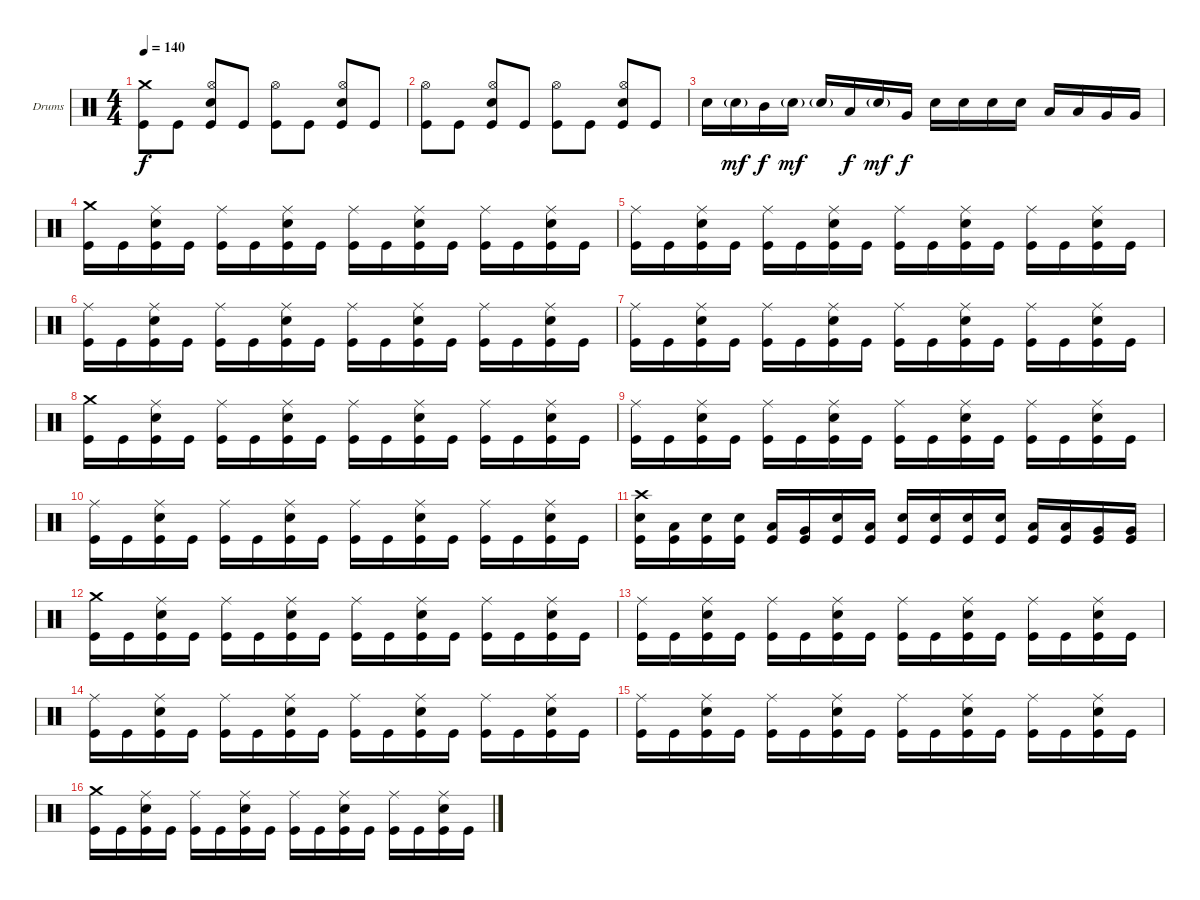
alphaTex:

\bracketExtendMode groupsimilarinstruments
\firstSystemTrackNameOrientation horizontal
\otherSystemsTrackNameOrientation horizontal
\track ("Дмитрий Кривенков" "Drums") {instrument percussion}
\staff {score}
\articulation defaults
\ts (4 4)
\tempo 140
\clef neutral
\ks c
("Crash medium (hit)" "Kick (hit)").8{dy f} "Kick (hit)".8 ("Hi-Hat (open)" "Snare (hit) 2" "Kick (hit)").8 "Kick (hit)".8 ("Hi-Hat (open)" "Kick (hit)").8 "Kick (hit)".8 ("Hi-Hat (open)" "Snare (hit) 2" "Kick (hit)").8 "Kick (hit)".8 |
("Hi-Hat (open)" "Kick (hit)").8 "Kick (hit)".8 ("Hi-Hat (open)" "Snare (hit) 2" "Kick (hit)").8 "Kick (hit)".8 ("Hi-Hat (open)" "Kick (hit)").8 "Kick (hit)".8 ("Hi-Hat (open)" "Snare (hit) 2" "Kick (hit)").8 "Kick (hit)".8 |
"Snare (hit) 2".16 "Snare (hit) 2"{g}.16{dy mf} "Mid Tom (hit)".16{dy f} "Snare (hit) 2"{g}.16{dy mf} "Snare (hit) 2"{g}.16 "Low Tom (hit)".16{dy f} "Snare (hit) 2"{g}.16{dy mf} "Very Low Tom (hit)".16{dy f} "Snare (hit) 2".16 "Snare (hit) 2".16 "Snare (hit) 2".16 "Snare (hit) 2".16 "Low Tom (hit)".16 "Low Tom (hit)".16 "Very Low Tom (hit)".16 "Very Low Tom (hit)".16 |
("Crash medium (hit)" "Kick (hit)").16 "Kick (hit)".16 ("Ride (middle)" "Snare (hit) 2" "Kick (hit)").16 "Kick (hit)".16 ("Ride (middle)" "Kick (hit)").16 "Kick (hit)".16 ("Ride (middle)" "Snare (hit) 2" "Kick (hit)").16 "Kick (hit)".16 ("Ride (middle)" "Kick (hit)").16 "Kick (hit)".16 ("Ride (middle)" "Snare (hit) 2" "Kick (hit)").16 "Kick (hit)".16 ("Ride (middle)" "Kick (hit)").16 "Kick (hit)".16 ("Ride (middle)" "Snare (hit) 2" "Kick (hit)").16 "Kick (hit)".16 |
("Ride (middle)" "Kick (hit)").16 "Kick (hit)".16 ("Ride (middle)" "Snare (hit) 2" "Kick (hit)").16 "Kick (hit)".16 ("Ride (middle)" "Kick (hit)").16 "Kick (hit)".16 ("Ride (middle)" "Snare (hit) 2" "Kick (hit)").16 "Kick (hit)".16 ("Ride (middle)" "Kick (hit)").16 "Kick (hit)".16 ("Ride (middle)" "Snare (hit) 2" "Kick (hit)").16 "Kick (hit)".16 ("Ride (middle)" "Kick (hit)").16 "Kick (hit)".16 ("Ride (middle)" "Snare (hit) 2" "Kick (hit)").16 "Kick (hit)".16 |
("Ride (middle)" "Kick (hit)").16 "Kick (hit)".16 ("Ride (middle)" "Snare (hit) 2" "Kick (hit)").16 "Kick (hit)".16 ("Ride (middle)" "Kick (hit)").16 "Kick (hit)".16 ("Ride (middle)" "Snare (hit) 2" "Kick (hit)").16 "Kick (hit)".16 ("Ride (middle)" "Kick (hit)").16 "Kick (hit)".16 ("Ride (middle)" "Snare (hit) 2" "Kick (hit)").16 "Kick (hit)".16 ("Ride (middle)" "Kick (hit)").16 "Kick (hit)".16 ("Ride (middle)" "Snare (hit) 2" "Kick (hit)").16 "Kick (hit)".16 |
("Ride (middle)" "Kick (hit)").16 "Kick (hit)".16 ("Ride (middle)" "Snare (hit) 2" "Kick (hit)").16 "Kick (hit)".16 ("Ride (middle)" "Kick (hit)").16 "Kick (hit)".16 ("Ride (middle)" "Snare (hit) 2" "Kick (hit)").16 "Kick (hit)".16 ("Ride (middle)" "Kick (hit)").16 "Kick (hit)".16 ("Ride (middle)" "Snare (hit) 2" "Kick (hit)").16 "Kick (hit)".16 ("Ride (middle)" "Kick (hit)").16 "Kick (hit)".16 ("Ride (middle)" "Snare (hit) 2" "Kick (hit)").16 "Kick (hit)".16 |
("Crash medium (hit)" "Kick (hit)").16 "Kick (hit)".16 ("Ride (middle)" "Snare (hit) 2" "Kick (hit)").16 "Kick (hit)".16 ("Ride (middle)" "Kick (hit)").16 "Kick (hit)".16 ("Ride (middle)" "Snare (hit) 2" "Kick (hit)").16 "Kick (hit)".16 ("Ride (middle)" "Kick (hit)").16 "Kick (hit)".16 ("Ride (middle)" "Snare (hit) 2" "Kick (hit)").16 "Kick (hit)".16 ("Ride (middle)" "Kick (hit)").16 "Kick (hit)".16 ("Ride (middle)" "Snare (hit) 2" "Kick (hit)").16 "Kick (hit)".16 |
("Ride (middle)" "Kick (hit)").16 "Kick (hit)".16 ("Ride (middle)" "Snare (hit) 2" "Kick (hit)").16 "Kick (hit)".16 ("Ride (middle)" "Kick (hit)").16 "Kick (hit)".16 ("Ride (middle)" "Snare (hit) 2" "Kick (hit)").16 "Kick (hit)".16 ("Ride (middle)" "Kick (hit)").16 "Kick (hit)".16 ("Ride (middle)" "Snare (hit) 2" "Kick (hit)").16 "Kick (hit)".16 ("Ride (middle)" "Kick (hit)").16 "Kick (hit)".16 ("Ride (middle)" "Snare (hit) 2" "Kick (hit)").16 "Kick (hit)".16 |
("Ride (middle)" "Kick (hit)").16 "Kick (hit)".16 ("Ride (middle)" "Snare (hit) 2" "Kick (hit)").16 "Kick (hit)".16 ("Ride (middle)" "Kick (hit)").16 "Kick (hit)".16 ("Ride (middle)" "Snare (hit) 2" "Kick (hit)").16 "Kick (hit)".16 ("Ride (middle)" "Kick (hit)").16 "Kick (hit)".16 ("Ride (middle)" "Snare (hit) 2" "Kick (hit)").16 "Kick (hit)".16 ("Ride (middle)" "Kick (hit)").16 "Kick (hit)".16 ("Ride (middle)" "Snare (hit) 2" "Kick (hit)").16 "Kick (hit)".16 |
("Crash high (hit)" "Snare (hit) 2" "Kick (hit)").16 ("Low Tom (hit)" "Kick (hit)").16 ("Snare (hit) 2" "Kick (hit)").16 ("Snare (hit) 2" "Kick (hit)").16 ("Low Tom (hit)" "Kick (hit)").16 ("Very Low Tom (hit)" "Kick (hit)").16 ("Snare (hit) 2" "Kick (hit)").16 ("Low Tom (hit)" "Kick (hit)").16 ("Snare (hit) 2" "Kick (hit)").16 ("Snare (hit) 2" "Kick (hit)").16 ("Snare (hit) 2" "Kick (hit)").16 ("Snare (hit) 2" "Kick (hit)").16 ("Low Tom (hit)" "Kick (hit)").16 ("Low Tom (hit)" "Kick (hit)").16 ("Very Low Tom (hit)" "Kick (hit)").16 ("Very Low Tom (hit)" "Kick (hit)").16 |
("Crash medium (hit)" "Kick (hit)").16 "Kick (hit)".16 ("Ride (middle)" "Snare (hit) 2" "Kick (hit)").16 "Kick (hit)".16 ("Ride (middle)" "Kick (hit)").16 "Kick (hit)".16 ("Ride (middle)" "Snare (hit) 2" "Kick (hit)").16 "Kick (hit)".16 ("Ride (middle)" "Kick (hit)").16 "Kick (hit)".16 ("Ride (middle)" "Snare (hit) 2" "Kick (hit)").16 "Kick (hit)".16 ("Ride (middle)" "Kick (hit)").16 "Kick (hit)".16 ("Ride (middle)" "Snare (hit) 2" "Kick (hit)").16 "Kick (hit)".16 |
("Ride (middle)" "Kick (hit)").16 "Kick (hit)".16 ("Ride (middle)" "Snare (hit) 2" "Kick (hit)").16 "Kick (hit)".16 ("Ride (middle)" "Kick (hit)").16 "Kick (hit)".16 ("Ride (middle)" "Snare (hit) 2" "Kick (hit)").16 "Kick (hit)".16 ("Ride (middle)" "Kick (hit)").16 "Kick (hit)".16 ("Ride (middle)" "Snare (hit) 2" "Kick (hit)").16 "Kick (hit)".16 ("Ride (middle)" "Kick (hit)").16 "Kick (hit)".16 ("Ride (middle)" "Snare (hit) 2" "Kick (hit)").16 "Kick (hit)".16 |
("Ride (middle)" "Kick (hit)").16 "Kick (hit)".16 ("Ride (middle)" "Snare (hit) 2" "Kick (hit)").16 "Kick (hit)".16 ("Ride (middle)" "Kick (hit)").16 "Kick (hit)".16 ("Ride (middle)" "Snare (hit) 2" "Kick (hit)").16 "Kick (hit)".16 ("Ride (middle)" "Kick (hit)").16 "Kick (hit)".16 ("Ride (middle)" "Snare (hit) 2" "Kick (hit)").16 "Kick (hit)".16 ("Ride (middle)" "Kick (hit)").16 "Kick (hit)".16 ("Ride (middle)" "Snare (hit) 2" "Kick (hit)").16 "Kick (hit)".16 |
("Ride (middle)" "Kick (hit)").16 "Kick (hit)".16 ("Ride (middle)" "Snare (hit) 2" "Kick (hit)").16 "Kick (hit)".16 ("Ride (middle)" "Kick (hit)").16 "Kick (hit)".16 ("Ride (middle)" "Snare (hit) 2" "Kick (hit)").16 "Kick (hit)".16 ("Ride (middle)" "Kick (hit)").16 "Kick (hit)".16 ("Ride (middle)" "Snare (hit) 2" "Kick (hit)").16 "Kick (hit)".16 ("Ride (middle)" "Kick (hit)").16 "Kick (hit)".16 ("Ride (middle)" "Snare (hit) 2" "Kick (hit)").16 "Kick (hit)".16 |
("Crash medium (hit)" "Kick (hit)").16 "Kick (hit)".16 ("Ride (middle)" "Snare (hit) 2" "Kick (hit)").16 "Kick (hit)".16 ("Ride (middle)" "Kick (hit)").16 "Kick (hit)".16 ("Ride (middle)" "Snare (hit) 2" "Kick (hit)").16 "Kick (hit)".16 ("Ride (middle)" "Kick (hit)").16 "Kick (hit)".16 ("Ride (middle)" "Snare (hit) 2" "Kick (hit)").16 "Kick (hit)".16 ("Ride (middle)" "Kick (hit)").16 "Kick (hit)".16 ("Ride (middle)" "Snare (hit) 2" "Kick (hit)").16 "Kick (hit)".16
